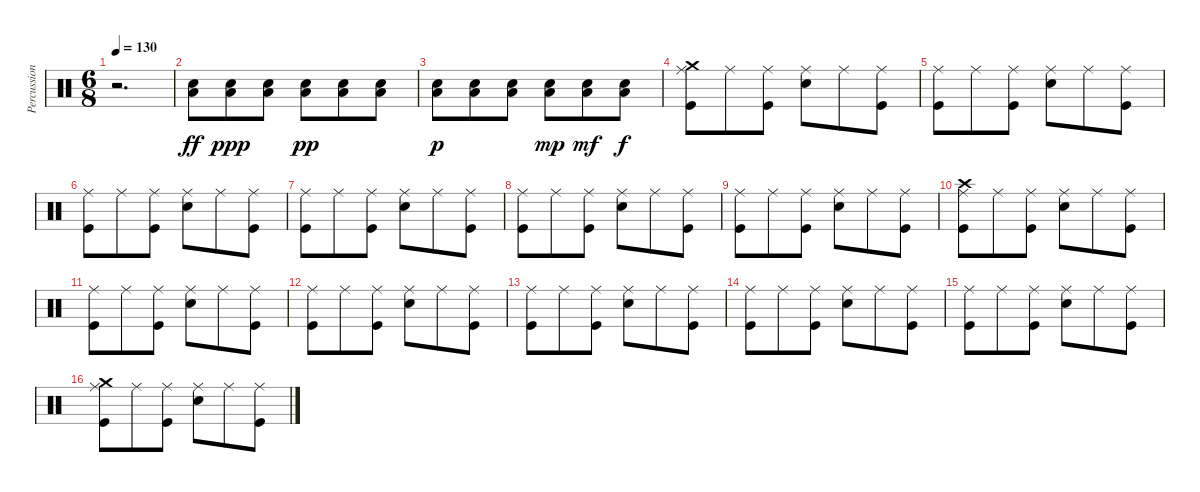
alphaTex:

\track ("Percussion" "Percussion") {instrument percussion}
\staff {score}
\articulation defaults
\ts (6 8)
\tempo 130
\clef neutral
\ks c
r.2{d dy ff} |
("Low Floor Tom (hit)" "Snare (hit) 2").8 ("Low Floor Tom (hit)" "Snare (hit) 2").8{dy ppp} ("Low Floor Tom (hit)" "Snare (hit) 2").8 ("Low Floor Tom (hit)" "Snare (hit) 2").8{dy pp} ("Low Floor Tom (hit)" "Snare (hit) 2").8 ("Low Floor Tom (hit)" "Snare (hit) 2").8 |
("Low Floor Tom (hit)" "Snare (hit) 2").8{dy p} ("Low Floor Tom (hit)" "Snare (hit) 2").8 ("Low Floor Tom (hit)" "Snare (hit) 2").8 ("Low Floor Tom (hit)" "Snare (hit) 2").8{dy mp} ("Low Floor Tom (hit)" "Snare (hit) 2").8{dy mf} ("Low Floor Tom (hit)" "Snare (hit) 2").8{dy f} |
("Crash medium (hit)" "Ride (middle)" "Kick (hit)").8 "Ride (middle)".8 ("Ride (middle)" "Kick (hit)").8 ("Ride (middle)" "Snare (hit) 2").8 "Ride (middle)".8 ("Ride (middle)" "Kick (hit)").8 |
("Ride (middle)" "Kick (hit)").8 "Ride (middle)".8 ("Ride (middle)" "Kick (hit)").8 ("Ride (middle)" "Snare (hit) 2").8 "Ride (middle)".8 ("Ride (middle)" "Kick (hit)").8 |
("Ride (middle)" "Kick (hit)").8 "Ride (middle)".8 ("Ride (middle)" "Kick (hit)").8 ("Ride (middle)" "Snare (hit) 2").8 "Ride (middle)".8 ("Ride (middle)" "Kick (hit)").8 |
("Ride (middle)" "Kick (hit)").8 "Ride (middle)".8 ("Ride (middle)" "Kick (hit)").8 ("Ride (middle)" "Snare (hit) 2").8 "Ride (middle)".8 ("Ride (middle)" "Kick (hit)").8 |
("Ride (middle)" "Kick (hit)").8 "Ride (middle)".8 ("Ride (middle)" "Kick (hit)").8 ("Ride (middle)" "Snare (hit) 2").8 "Ride (middle)".8 ("Ride (middle)" "Kick (hit)").8 |
("Ride (middle)" "Kick (hit)").8 "Ride (middle)".8 ("Ride (middle)" "Kick (hit)").8 ("Ride (middle)" "Snare (hit) 2").8 "Ride (middle)".8 ("Ride (middle)" "Kick (hit)").8 |
("Crash high (hit)" "Ride (middle)" "Kick (hit)").8 "Ride (middle)".8 ("Ride (middle)" "Kick (hit)").8 ("Ride (middle)" "Snare (hit) 2").8 "Ride (middle)".8 ("Ride (middle)" "Kick (hit)").8 |
("Ride (middle)" "Kick (hit)").8 "Ride (middle)".8 ("Ride (middle)" "Kick (hit)").8 ("Ride (middle)" "Snare (hit) 2").8 "Ride (middle)".8 ("Ride (middle)" "Kick (hit)").8 |
("Ride (middle)" "Kick (hit)").8 "Ride (middle)".8 ("Ride (middle)" "Kick (hit)").8 ("Ride (middle)" "Snare (hit) 2").8 "Ride (middle)".8 ("Ride (middle)" "Kick (hit)").8 |
("Ride (middle)" "Kick (hit)").8 "Ride (middle)".8 ("Ride (middle)" "Kick (hit)").8 ("Ride (middle)" "Snare (hit) 2").8 "Ride (middle)".8 ("Ride (middle)" "Kick (hit)").8 |
("Ride (middle)" "Kick (hit)").8 "Ride (middle)".8 ("Ride (middle)" "Kick (hit)").8 ("Ride (middle)" "Snare (hit) 2").8 "Ride (middle)".8 ("Ride (middle)" "Kick (hit)").8 |
("Ride (middle)" "Kick (hit)").8 "Ride (middle)".8 ("Ride (middle)" "Kick (hit)").8 ("Ride (middle)" "Snare (hit) 2").8 "Ride (middle)".8 ("Ride (middle)" "Kick (hit)").8 |
("Crash medium (hit)" "Ride (middle)" "Kick (hit)").8 "Ride (middle)".8 ("Ride (middle)" "Kick (hit)").8 ("Ride (middle)" "Snare (hit) 2").8 "Ride (middle)".8 ("Ride (middle)" "Kick (hit)").8
